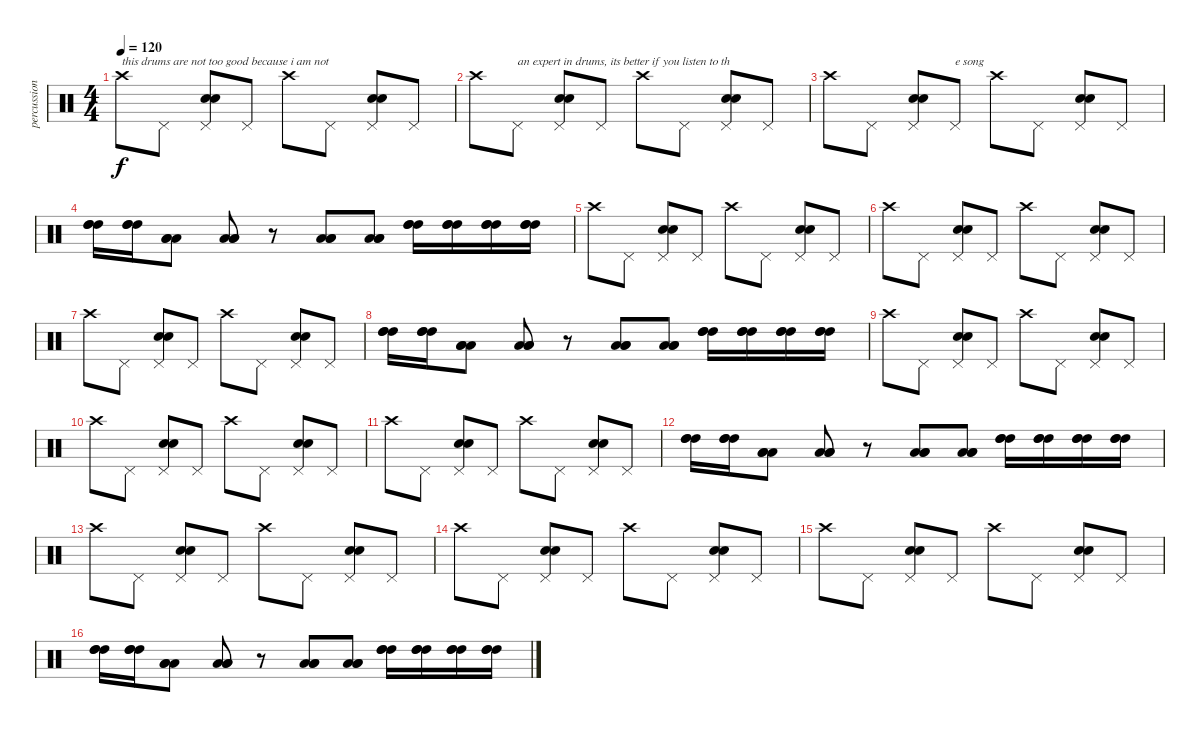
\track ("percussion" "percussion") {instrument percussion}
\staff {score}
\articulation defaults
\ts (4 4)
\tempo 120
\clef neutral
\ks c "Crash high (hit)".8{txt "this drums are not too good because i am not " dy f} "Pedal Hi-Hat (hit)".8
("Pedal Hi-Hat (hit)" "Snare (hit) 2" "Snare (hit) 2").8 "Pedal Hi-Hat (hit)".8 "Crash high (hit)".8 "Pedal Hi-Hat (hit)".8 ("Pedal Hi-Hat (hit)" "Snare (hit) 2" "Snare (hit) 2").8 "Pedal Hi-Hat (hit)".8 |
"Crash high (hit)".8 "Pedal Hi-Hat (hit)".8{txt "an expert in drums, its better if you listen to th"} ("Pedal Hi-Hat (hit)" "Snare (hit) 2" "Snare (hit) 2").8 "Pedal Hi-Hat (hit)".8 "Crash high (hit)".8 "Pedal Hi-Hat (hit)".8 ("Pedal Hi-Hat (hit)" "Snare (hit) 2" "Snare (hit) 2").8 "Pedal Hi-Hat (hit)".8 |
"Crash high (hit)".8 "Pedal Hi-Hat (hit)".8 ("Pedal Hi-Hat (hit)" "Snare (hit) 2" "Snare (hit) 2").8 "Pedal Hi-Hat (hit)".8{txt "e song"} "Crash high (hit)".8 "Pedal Hi-Hat (hit)".8 ("Pedal Hi-Hat (hit)" "Snare (hit) 2" "Snare (hit) 2").8 "Pedal Hi-Hat (hit)".8 |
("High Tom (hit)" "High Tom (hit)" "High Tom (hit)").16 ("High Tom (hit)" "High Tom (hit)" "High Tom (hit)").16 ("Low Tom (hit)" "Low Tom (hit)" "Low Tom (hit)").8 ("Low Tom (hit)" "Low Tom (hit)" "Low Tom (hit)").8 r.8 ("Low Tom (hit)" "Low Tom (hit)" "Low Tom (hit)").8 ("Low Tom (hit)" "Low Tom (hit)" "Low Tom (hit)").8 ("High Tom (hit)" "High Tom (hit)" "High Tom (hit)").16 ("High Tom (hit)" "High Tom (hit)" "High Tom (hit)").16 ("High Tom (hit)" "High Tom (hit)" "High Tom (hit)").16 ("High Tom (hit)" "High Tom (hit)" "High Tom (hit)").16 |
"Crash high (hit)".8 "Pedal Hi-Hat (hit)".8 ("Pedal Hi-Hat (hit)" "Snare (hit) 2" "Snare (hit) 2").8 "Pedal Hi-Hat (hit)".8 "Crash high (hit)".8 "Pedal Hi-Hat (hit)".8 ("Pedal Hi-Hat (hit)" "Snare (hit) 2" "Snare (hit) 2").8 "Pedal Hi-Hat (hit)".8 |
"Crash high (hit)".8 "Pedal Hi-Hat (hit)".8 ("Pedal Hi-Hat (hit)" "Snare (hit) 2" "Snare (hit) 2").8 "Pedal Hi-Hat (hit)".8 "Crash high (hit)".8 "Pedal Hi-Hat (hit)".8 ("Pedal Hi-Hat (hit)" "Snare (hit) 2" "Snare (hit) 2").8 "Pedal Hi-Hat (hit)".8 |
"Crash high (hit)".8 "Pedal Hi-Hat (hit)".8 ("Pedal Hi-Hat (hit)" "Snare (hit) 2" "Snare (hit) 2").8 "Pedal Hi-Hat (hit)".8 "Crash high (hit)".8 "Pedal Hi-Hat (hit)".8 ("Pedal Hi-Hat (hit)" "Snare (hit) 2" "Snare (hit) 2").8 "Pedal Hi-Hat (hit)".8 |
("High Tom (hit)" "High Tom (hit)" "High Tom (hit)").16 ("High Tom (hit)" "High Tom (hit)" "High Tom (hit)").16 ("Low Tom (hit)" "Low Tom (hit)" "Low Tom (hit)").8 ("Low Tom (hit)" "Low Tom (hit)" "Low Tom (hit)").8 r.8 ("Low Tom (hit)" "Low Tom (hit)" "Low Tom (hit)").8 ("Low Tom (hit)" "Low Tom (hit)" "Low Tom (hit)").8 ("High Tom (hit)" "High Tom (hit)" "High Tom (hit)").16 ("High Tom (hit)" "High Tom (hit)" "High Tom (hit)").16 ("High Tom (hit)" "High Tom (hit)" "High Tom (hit)").16 ("High Tom (hit)" "High Tom (hit)" "High Tom (hit)").16 |
"Crash high (hit)".8 "Pedal Hi-Hat (hit)".8 ("Pedal Hi-Hat (hit)" "Snare (hit) 2" "Snare (hit) 2").8 "Pedal Hi-Hat (hit)".8 "Crash high (hit)".8 "Pedal Hi-Hat (hit)".8 ("Pedal Hi-Hat (hit)" "Snare (hit) 2" "Snare (hit) 2").8 "Pedal Hi-Hat (hit)".8 |
"Crash high (hit)".8 "Pedal Hi-Hat (hit)".8 ("Pedal Hi-Hat (hit)" "Snare (hit) 2" "Snare (hit) 2").8 "Pedal Hi-Hat (hit)".8 "Crash high (hit)".8 "Pedal Hi-Hat (hit)".8 ("Pedal Hi-Hat (hit)" "Snare (hit) 2" "Snare (hit) 2").8 "Pedal Hi-Hat (hit)".8 |
"Crash high (hit)".8 "Pedal Hi-Hat (hit)".8 ("Pedal Hi-Hat (hit)" "Snare (hit) 2" "Snare (hit) 2").8 "Pedal Hi-Hat (hit)".8 "Crash high (hit)".8 "Pedal Hi-Hat (hit)".8 ("Pedal Hi-Hat (hit)" "Snare (hit) 2" "Snare (hit) 2").8 "Pedal Hi-Hat (hit)".8 |
("High Tom (hit)" "High Tom (hit)" "High Tom (hit)").16 ("High Tom (hit)" "High Tom (hit)" "High Tom (hit)").16 ("Low Tom (hit)" "Low Tom (hit)" "Low Tom (hit)").8 ("Low Tom (hit)" "Low Tom (hit)" "Low Tom (hit)").8 r.8 ("Low Tom (hit)" "Low Tom (hit)" "Low Tom (hit)").8 ("Low Tom (hit)" "Low Tom (hit)" "Low Tom (hit)").8 ("High Tom (hit)" "High Tom (hit)" "High Tom (hit)").16 ("High Tom (hit)" "High Tom (hit)" "High Tom (hit)").16 ("High Tom (hit)" "High Tom (hit)" "High Tom (hit)").16 ("High Tom (hit)" "High Tom (hit)" "High Tom (hit)").16 |
"Crash high (hit)".8 "Pedal Hi-Hat (hit)".8 ("Pedal Hi-Hat (hit)" "Snare (hit) 2" "Snare (hit) 2").8 "Pedal Hi-Hat (hit)".8 "Crash high (hit)".8 "Pedal Hi-Hat (hit)".8 ("Pedal Hi-Hat (hit)" "Snare (hit) 2" "Snare (hit) 2").8 "Pedal Hi-Hat (hit)".8 |
"Crash high (hit)".8 "Pedal Hi-Hat (hit)".8 ("Pedal Hi-Hat (hit)" "Snare (hit) 2" "Snare (hit) 2").8 "Pedal Hi-Hat (hit)".8 "Crash high (hit)".8 "Pedal Hi-Hat (hit)".8 ("Pedal Hi-Hat (hit)" "Snare (hit) 2" "Snare (hit) 2").8 "Pedal Hi-Hat (hit)".8 |
"Crash high (hit)".8 "Pedal Hi-Hat (hit)".8 ("Pedal Hi-Hat (hit)" "Snare (hit) 2" "Snare (hit) 2").8 "Pedal Hi-Hat (hit)".8 "Crash high (hit)".8 "Pedal Hi-Hat (hit)".8 ("Pedal Hi-Hat (hit)" "Snare (hit) 2" "Snare (hit) 2").8 "Pedal Hi-Hat (hit)".8 |
("High Tom (hit)" "High Tom (hit)" "High Tom (hit)").16 ("High Tom (hit)" "High Tom (hit)" "High Tom (hit)").16 ("Low Tom (hit)" "Low Tom (hit)" "Low Tom (hit)").8 ("Low Tom (hit)" "Low Tom (hit)" "Low Tom (hit)").8 r.8 ("Low Tom (hit)" "Low Tom (hit)" "Low Tom (hit)").8 ("Low Tom (hit)" "Low Tom (hit)" "Low Tom (hit)").8 ("High Tom (hit)" "High Tom (hit)" "High Tom (hit)").16 ("High Tom (hit)" "High Tom (hit)" "High Tom (hit)").16 ("High Tom (hit)" "High Tom (hit)" "High Tom (hit)").16 ("High Tom (hit)" "High Tom (hit)" "High Tom (hit)").16
